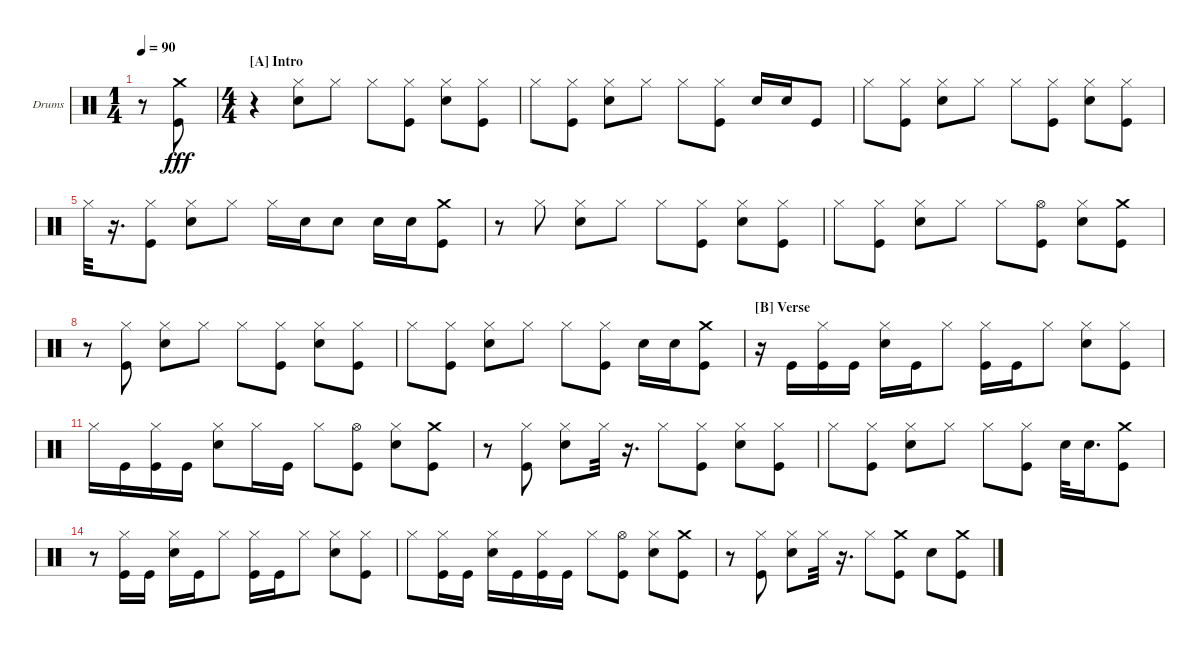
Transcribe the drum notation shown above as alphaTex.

\bracketExtendMode nobrackets
\firstSystemTrackNameOrientation horizontal
\otherSystemsTrackNameOrientation horizontal
\defaultBarNumberDisplay FirstOfSystem
\track ("Drums" "Drums") {instrument percussion}
\staff {score}
\articulation defaults
\ts (1 4)
\tempo 90
\clef neutral
\ks c
r.8{dy fff} ("Kick (hit)" "Crash medium (hit)").8 |
\ts (4 4)
\section ("A" "Intro")
r.4 ("Hi-Hat (closed)" "Snare (hit) 2").8 "Hi-Hat (closed)".8 "Hi-Hat (closed)".8 ("Kick (hit)" "Hi-Hat (closed)").8 ("Snare (hit) 2" "Hi-Hat (closed)").8 ("Hi-Hat (closed)" "Kick (hit)").8 |
"Hi-Hat (closed)".8 ("Kick (hit)" "Hi-Hat (closed)").8 ("Hi-Hat (closed)" "Snare (hit) 2").8 "Hi-Hat (closed)".8 "Hi-Hat (closed)".8 ("Kick (hit)" "Hi-Hat (closed)").8 "Snare (hit) 2".16 "Snare (hit) 2".16 "Kick (hit)".8 |
"Hi-Hat (closed)".8 ("Kick (hit)" "Hi-Hat (closed)").8 ("Hi-Hat (closed)" "Snare (hit) 2").8 "Hi-Hat (closed)".8 "Hi-Hat (closed)".8 ("Kick (hit)" "Hi-Hat (closed)").8 ("Snare (hit) 2" "Hi-Hat (closed)").8 ("Kick (hit)" "Hi-Hat (closed)").8 |
"Hi-Hat (closed)".32 r.16{d} ("Hi-Hat (closed)" "Kick (hit)").8 ("Hi-Hat (closed)" "Snare (hit) 2").8 "Hi-Hat (closed)".8 "Hi-Hat (closed)".16 "Snare (hit) 2".16 "Snare (hit) 2".8 "Snare (hit) 2".16 "Snare (hit) 2".16 ("Kick (hit)" "Crash medium (hit)").8 |
r.8 "Hi-Hat (closed)".8 ("Hi-Hat (closed)" "Snare (hit) 2").8 "Hi-Hat (closed)".8 "Hi-Hat (closed)".8 ("Kick (hit)" "Hi-Hat (closed)").8 ("Hi-Hat (closed)" "Snare (hit) 2").8 ("Hi-Hat (closed)" "Kick (hit)").8 |
"Hi-Hat (closed)".8 ("Hi-Hat (closed)" "Kick (hit)").8 ("Snare (hit) 2" "Hi-Hat (closed)").8 "Hi-Hat (closed)".8 "Hi-Hat (closed)".8 ("Hi-Hat (open)" "Kick (hit)").8 ("Hi-Hat (closed)" "Snare (hit) 2").8 ("Crash medium (hit)" "Kick (hit)").8 |
r.8 ("Kick (hit)" "Hi-Hat (closed)").8 ("Hi-Hat (closed)" "Snare (hit) 2").8 "Hi-Hat (closed)".8 "Hi-Hat (closed)".8 ("Hi-Hat (closed)" "Kick (hit)").8 ("Hi-Hat (closed)" "Snare (hit) 2").8 ("Hi-Hat (closed)" "Kick (hit)").8 |
"Hi-Hat (closed)".8 ("Hi-Hat (closed)" "Kick (hit)").8 ("Hi-Hat (closed)" "Snare (hit) 2").8 "Hi-Hat (closed)".8 "Hi-Hat (closed)".8 ("Kick (hit)" "Hi-Hat (closed)").8 "Snare (hit) 2".16 "Snare (hit) 2".16 ("Kick (hit)" "Crash medium (hit)").8 |
\section ("B" "Verse")
r.16 "Kick (hit)".16 ("Hi-Hat (closed)" "Kick (hit)").16 "Kick (hit)".16 ("Hi-Hat (closed)" "Snare (hit) 2").16 "Kick (hit)".16 "Hi-Hat (closed)".8 ("Kick (hit)" "Hi-Hat (closed)").16 "Kick (hit)".16 "Hi-Hat (closed)".8 ("Hi-Hat (closed)" "Snare (hit) 2").8 ("Kick (hit)" "Hi-Hat (closed)").8 |
"Hi-Hat (closed)".16 "Kick (hit)".16 ("Hi-Hat (closed)" "Kick (hit)").16 "Kick (hit)".16 ("Snare (hit) 2" "Hi-Hat (closed)").8 "Hi-Hat (closed)".16 "Kick (hit)".16 "Hi-Hat (closed)".8 ("Kick (hit)" "Hi-Hat (open)").8 ("Snare (hit) 2" "Hi-Hat (closed)").8 ("Crash medium (hit)" "Kick (hit)").8 |
r.8 ("Hi-Hat (closed)" "Kick (hit)").8 ("Snare (hit) 2" "Hi-Hat (closed)").8 "Hi-Hat (closed)".32 r.16{d} "Hi-Hat (closed)".8 ("Kick (hit)" "Hi-Hat (closed)").8 ("Snare (hit) 2" "Hi-Hat (closed)").8 ("Hi-Hat (closed)" "Kick (hit)").8 |
"Hi-Hat (closed)".8 ("Hi-Hat (closed)" "Kick (hit)").8 ("Hi-Hat (closed)" "Snare (hit) 2").8 "Hi-Hat (closed)".8 "Hi-Hat (closed)".8 ("Hi-Hat (closed)" "Kick (hit)").8 "Snare (hit) 2".32 "Snare (hit) 2".16{d} ("Crash medium (hit)" "Kick (hit)").8 |
r.8 ("Hi-Hat (closed)" "Kick (hit)").16 "Kick (hit)".16 ("Hi-Hat (closed)" "Snare (hit) 2").16 "Kick (hit)".16 "Hi-Hat (closed)".8 ("Kick (hit)" "Hi-Hat (closed)").16 "Kick (hit)".16 "Hi-Hat (closed)".8 ("Hi-Hat (closed)" "Snare (hit) 2").8 ("Kick (hit)" "Hi-Hat (closed)").8 |
"Hi-Hat (closed)".8 ("Hi-Hat (closed)" "Kick (hit)").16 "Kick (hit)".16 ("Snare (hit) 2" "Hi-Hat (closed)").16 "Kick (hit)".16 ("Kick (hit)" "Hi-Hat (closed)").16 "Kick (hit)".16 "Hi-Hat (closed)".8 ("Kick (hit)" "Hi-Hat (open)").8 ("Snare (hit) 2" "Hi-Hat (closed)").8 ("Kick (hit)" "Crash medium (hit)").8 |
r.8 ("Hi-Hat (closed)" "Kick (hit)").8 ("Snare (hit) 2" "Hi-Hat (closed)").8 "Hi-Hat (closed)".32 r.16{d} "Hi-Hat (closed)".8 ("Kick (hit)" "Crash medium (hit)").8 "Snare (hit) 2".8 ("Crash medium (hit)" "Kick (hit)").8
